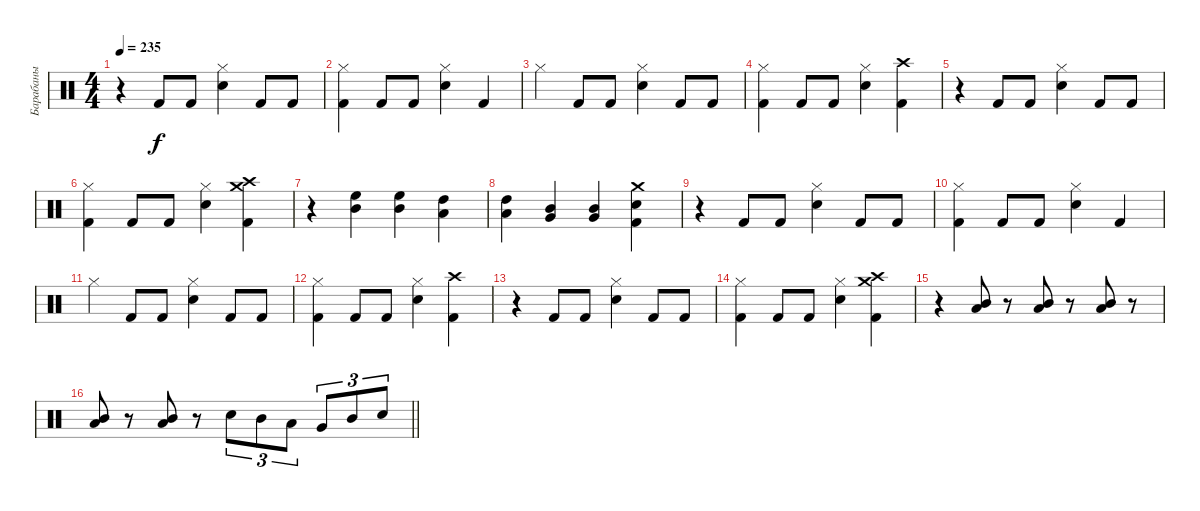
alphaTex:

\track ("Барабаны" "Барабаны") {instrument percussion}
\staff {score}
\articulation defaults
\ts (4 4)
\tempo 235
\clef neutral
\ks c
r.4{dy f} "Kick (hit) 2".8 "Kick (hit) 2".8 ("Hi-Hat (closed)" "Electric Snare (hit)").4 "Kick (hit) 2".8 "Kick (hit) 2".8 |
("Hi-Hat (closed)" "Kick (hit) 2").4 "Kick (hit) 2".8 "Kick (hit) 2".8 ("Hi-Hat (closed)" "Electric Snare (hit)").4 "Kick (hit) 2".4 |
"Hi-Hat (closed)".4 "Kick (hit) 2".8 "Kick (hit) 2".8 ("Electric Snare (hit)" "Hi-Hat (closed)").4 "Kick (hit) 2".8 "Kick (hit) 2".8 |
("Kick (hit) 2" "Hi-Hat (closed)").4 "Kick (hit) 2".8 "Kick (hit) 2".8 ("Electric Snare (hit)" "Hi-Hat (closed)").4 ("Crash high (hit)" "Kick (hit) 2").4 |
r.4 "Kick (hit) 2".8 "Kick (hit) 2".8 ("Hi-Hat (closed)" "Electric Snare (hit)").4 "Kick (hit) 2".8 "Kick (hit) 2".8 |
("Hi-Hat (closed)" "Kick (hit) 2").4 "Kick (hit) 2".8 "Kick (hit) 2".8 ("Hi-Hat (closed)" "Electric Snare (hit)").4 ("Crash high (hit)" "Crash medium (hit)" "Kick (hit) 2").4 |
r.4 ("High Floor Tom (hit)" "Mid Tom (hit)").4 ("High Floor Tom (hit)" "Mid Tom (hit)").4 ("High Tom (hit)" "Low Tom (hit)").4 |
("High Tom (hit)" "Low Tom (hit)").4 ("Mid Tom (hit)" "Very Low Tom (hit)").4 ("Mid Tom (hit)" "Very Low Tom (hit)").4 ("Electric Snare (hit)" "Crash medium (hit)" "Kick (hit) 2").4 |
r.4 "Kick (hit) 2".8 "Kick (hit) 2".8 ("Hi-Hat (closed)" "Electric Snare (hit)").4 "Kick (hit) 2".8 "Kick (hit) 2".8 |
("Hi-Hat (closed)" "Kick (hit) 2").4 "Kick (hit) 2".8 "Kick (hit) 2".8 ("Hi-Hat (closed)" "Electric Snare (hit)").4 "Kick (hit) 2".4 |
"Hi-Hat (closed)".4 "Kick (hit) 2".8 "Kick (hit) 2".8 ("Electric Snare (hit)" "Hi-Hat (closed)").4 "Kick (hit) 2".8 "Kick (hit) 2".8 |
("Kick (hit) 2" "Hi-Hat (closed)").4 "Kick (hit) 2".8 "Kick (hit) 2".8 ("Electric Snare (hit)" "Hi-Hat (closed)").4 ("Crash high (hit)" "Kick (hit) 2").4 |
r.4 "Kick (hit) 2".8 "Kick (hit) 2".8 ("Hi-Hat (closed)" "Electric Snare (hit)").4 "Kick (hit) 2".8 "Kick (hit) 2".8 |
("Hi-Hat (closed)" "Kick (hit) 2").4 "Kick (hit) 2".8 "Kick (hit) 2".8 ("Hi-Hat (closed)" "Electric Snare (hit)").4 ("Crash high (hit)" "Crash medium (hit)" "Kick (hit) 2").4 |
r.4 ("Mid Tom (hit)" "Low Tom (hit)").8 r.8 ("Mid Tom (hit)" "Low Tom (hit)").8 r.8 ("Mid Tom (hit)" "Low Tom (hit)").8 r.8 |
\barLineRight lightlight
("Mid Tom (hit)" "Low Tom (hit)").8 r.8 ("Mid Tom (hit)" "Low Tom (hit)").8 r.8 "Electric Snare (hit)".8{tu (3 2)} "Mid Tom (hit)".8{tu (3 2)} "Low Tom (hit)".8{tu (3 2)} "Very Low Tom (hit)".8{tu (3 2)} "Mid Tom (hit)".8{tu (3 2)} "Electric Snare (hit)".8{tu (3 2)}
